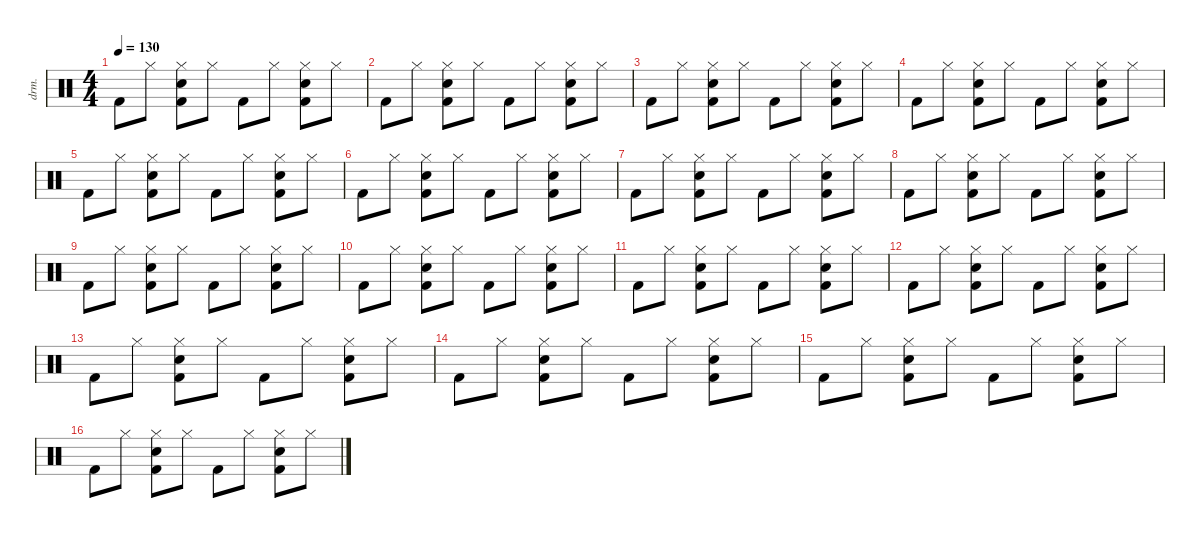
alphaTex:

\defaultSystemsLayout 4
\hideDynamics
\bracketExtendMode nobrackets
\otherSystemsTrackNameOrientation horizontal
\track ("Percussion" "drm.") {defaultSystemsLayout 4 instrument percussion}
\staff {score}
\articulation defaults
\ts (4 4)
\tempo 130
\clef neutral
\ks c "Kick (hit) 2".8{dy f beam Down} "Hi-Hat (closed)".8{beam Down}
("Hi-Hat (closed)" "Snare (hit) 2" "Kick (hit) 2").8{beam Down} "Hi-Hat (closed)".8{beam Down} "Kick (hit) 2".8{beam Down} "Hi-Hat (closed)".8{beam Down} ("Hi-Hat (closed)" "Snare (hit) 2" "Kick (hit) 2").8{beam Down} "Hi-Hat (closed)".8{beam Down} |
"Kick (hit) 2".8{beam Down} "Hi-Hat (closed)".8{beam Down} ("Hi-Hat (closed)" "Snare (hit) 2" "Kick (hit) 2").8{beam Down} "Hi-Hat (closed)".8{beam Down} "Kick (hit) 2".8{beam Down} "Hi-Hat (closed)".8{beam Down} ("Hi-Hat (closed)" "Snare (hit) 2" "Kick (hit) 2").8{beam Down} "Hi-Hat (closed)".8{beam Down} |
"Kick (hit) 2".8{beam Down} "Hi-Hat (closed)".8{beam Down} ("Hi-Hat (closed)" "Snare (hit) 2" "Kick (hit) 2").8{beam Down} "Hi-Hat (closed)".8{beam Down} "Kick (hit) 2".8{beam Down} "Hi-Hat (closed)".8{beam Down} ("Hi-Hat (closed)" "Snare (hit) 2" "Kick (hit) 2").8{beam Down} "Hi-Hat (closed)".8{beam Down} |
"Kick (hit) 2".8{beam Down} "Hi-Hat (closed)".8{beam Down} ("Hi-Hat (closed)" "Snare (hit) 2" "Kick (hit) 2").8{beam Down} "Hi-Hat (closed)".8{beam Down} "Kick (hit) 2".8{beam Down} "Hi-Hat (closed)".8{beam Down} ("Hi-Hat (closed)" "Snare (hit) 2" "Kick (hit) 2").8{beam Down} "Hi-Hat (closed)".8{beam Down} |
"Kick (hit) 2".8{beam Down} "Hi-Hat (closed)".8{beam Down} ("Hi-Hat (closed)" "Snare (hit) 2" "Kick (hit) 2").8{beam Down} "Hi-Hat (closed)".8{beam Down} "Kick (hit) 2".8{beam Down} "Hi-Hat (closed)".8{beam Down} ("Hi-Hat (closed)" "Snare (hit) 2" "Kick (hit) 2").8{beam Down} "Hi-Hat (closed)".8{beam Down} |
"Kick (hit) 2".8{beam Down} "Hi-Hat (closed)".8{beam Down} ("Hi-Hat (closed)" "Snare (hit) 2" "Kick (hit) 2").8{beam Down} "Hi-Hat (closed)".8{beam Down} "Kick (hit) 2".8{beam Down} "Hi-Hat (closed)".8{beam Down} ("Hi-Hat (closed)" "Snare (hit) 2" "Kick (hit) 2").8{beam Down} "Hi-Hat (closed)".8{beam Down} |
"Kick (hit) 2".8{beam Down} "Hi-Hat (closed)".8{beam Down} ("Hi-Hat (closed)" "Snare (hit) 2" "Kick (hit) 2").8{beam Down} "Hi-Hat (closed)".8{beam Down} "Kick (hit) 2".8{beam Down} "Hi-Hat (closed)".8{beam Down} ("Hi-Hat (closed)" "Snare (hit) 2" "Kick (hit) 2").8{beam Down} "Hi-Hat (closed)".8{beam Down} |
"Kick (hit) 2".8{beam Down} "Hi-Hat (closed)".8{beam Down} ("Hi-Hat (closed)" "Snare (hit) 2" "Kick (hit) 2").8{beam Down} "Hi-Hat (closed)".8{beam Down} "Kick (hit) 2".8{beam Down} "Hi-Hat (closed)".8{beam Down} ("Hi-Hat (closed)" "Snare (hit) 2" "Kick (hit) 2").8{beam Down} "Hi-Hat (closed)".8{beam Down} |
"Kick (hit) 2".8{beam Down} "Hi-Hat (closed)".8{beam Down} ("Hi-Hat (closed)" "Snare (hit) 2" "Kick (hit) 2").8{beam Down} "Hi-Hat (closed)".8{beam Down} "Kick (hit) 2".8{beam Down} "Hi-Hat (closed)".8{beam Down} ("Hi-Hat (closed)" "Snare (hit) 2" "Kick (hit) 2").8{beam Down} "Hi-Hat (closed)".8{beam Down} |
"Kick (hit) 2".8{beam Down} "Hi-Hat (closed)".8{beam Down} ("Hi-Hat (closed)" "Snare (hit) 2" "Kick (hit) 2").8{beam Down} "Hi-Hat (closed)".8{beam Down} "Kick (hit) 2".8{beam Down} "Hi-Hat (closed)".8{beam Down} ("Hi-Hat (closed)" "Snare (hit) 2" "Kick (hit) 2").8{beam Down} "Hi-Hat (closed)".8{beam Down} |
"Kick (hit) 2".8{beam Down} "Hi-Hat (closed)".8{beam Down} ("Hi-Hat (closed)" "Snare (hit) 2" "Kick (hit) 2").8{beam Down} "Hi-Hat (closed)".8{beam Down} "Kick (hit) 2".8{beam Down} "Hi-Hat (closed)".8{beam Down} ("Hi-Hat (closed)" "Snare (hit) 2" "Kick (hit) 2").8{beam Down} "Hi-Hat (closed)".8{beam Down} |
"Kick (hit) 2".8{beam Down} "Hi-Hat (closed)".8{beam Down} ("Hi-Hat (closed)" "Snare (hit) 2" "Kick (hit) 2").8{beam Down} "Hi-Hat (closed)".8{beam Down} "Kick (hit) 2".8{beam Down} "Hi-Hat (closed)".8{beam Down} ("Hi-Hat (closed)" "Snare (hit) 2" "Kick (hit) 2").8{beam Down} "Hi-Hat (closed)".8{beam Down} |
"Kick (hit) 2".8{beam Down} "Hi-Hat (closed)".8{beam Down} ("Hi-Hat (closed)" "Snare (hit) 2" "Kick (hit) 2").8{beam Down} "Hi-Hat (closed)".8{beam Down} "Kick (hit) 2".8{beam Down} "Hi-Hat (closed)".8{beam Down} ("Hi-Hat (closed)" "Snare (hit) 2" "Kick (hit) 2").8{beam Down} "Hi-Hat (closed)".8{beam Down} |
"Kick (hit) 2".8{beam Down} "Hi-Hat (closed)".8{beam Down} ("Hi-Hat (closed)" "Snare (hit) 2" "Kick (hit) 2").8{beam Down} "Hi-Hat (closed)".8{beam Down} "Kick (hit) 2".8{beam Down} "Hi-Hat (closed)".8{beam Down} ("Hi-Hat (closed)" "Snare (hit) 2" "Kick (hit) 2").8{beam Down} "Hi-Hat (closed)".8{beam Down} |
"Kick (hit) 2".8{beam Down} "Hi-Hat (closed)".8{beam Down} ("Hi-Hat (closed)" "Snare (hit) 2" "Kick (hit) 2").8{beam Down} "Hi-Hat (closed)".8{beam Down} "Kick (hit) 2".8{beam Down} "Hi-Hat (closed)".8{beam Down} ("Hi-Hat (closed)" "Snare (hit) 2" "Kick (hit) 2").8{beam Down} "Hi-Hat (closed)".8{beam Down} |
"Kick (hit) 2".8{beam Down} "Hi-Hat (closed)".8{beam Down} ("Hi-Hat (closed)" "Snare (hit) 2" "Kick (hit) 2").8{beam Down} "Hi-Hat (closed)".8{beam Down} "Kick (hit) 2".8{beam Down} "Hi-Hat (closed)".8{beam Down} ("Hi-Hat (closed)" "Snare (hit) 2" "Kick (hit) 2").8{beam Down} "Hi-Hat (closed)".8{beam Down}
